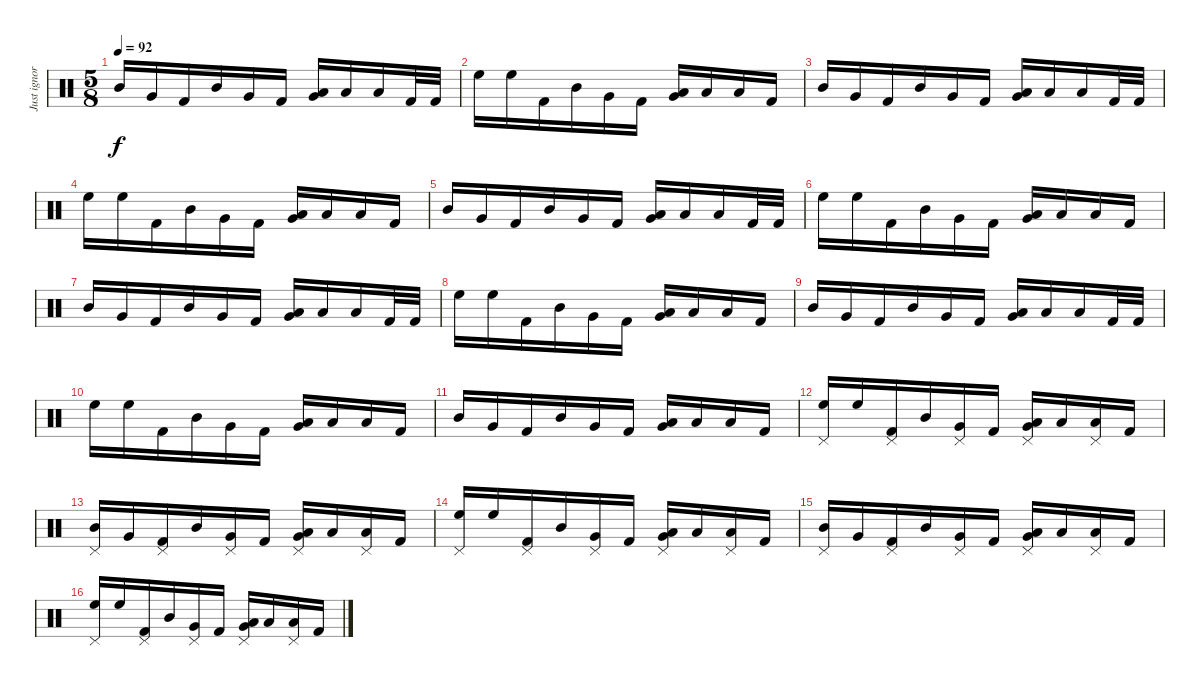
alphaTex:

\track ("Just ignore this track" "Just ignor") {instrument percussion}
\staff {score}
\articulation defaults
\ts (5 8)
\tempo 92
\clef neutral
\ks c "Mid Tom (hit)".16{dy f} "Very Low Tom (hit)".16 "Kick (hit) 2".16 "Mid Tom (hit)".16 "Very Low Tom (hit)".16 "Kick (hit) 2".16
("Low Floor Tom (hit)" "Very Low Tom (hit)").16 "Low Floor Tom (hit)".16 "Low Floor Tom (hit)".16 "Kick (hit) 2".32 "Kick (hit) 2".32 |
"High Floor Tom (hit)".16 "High Floor Tom (hit)".16 "Kick (hit) 2".16 "Mid Tom (hit)".16 "Very Low Tom (hit)".16 "Kick (hit) 2".16 ("Low Floor Tom (hit)" "Very Low Tom (hit)").16 "Low Floor Tom (hit)".16 "Low Floor Tom (hit)".16 "Kick (hit) 2".16 |
"Mid Tom (hit)".16 "Very Low Tom (hit)".16 "Kick (hit) 2".16 "Mid Tom (hit)".16 "Very Low Tom (hit)".16 "Kick (hit) 2".16 ("Low Floor Tom (hit)" "Very Low Tom (hit)").16 "Low Floor Tom (hit)".16 "Low Floor Tom (hit)".16 "Kick (hit) 2".32 "Kick (hit) 2".32 |
"High Floor Tom (hit)".16 "High Floor Tom (hit)".16 "Kick (hit) 2".16 "Mid Tom (hit)".16 "Very Low Tom (hit)".16 "Kick (hit) 2".16 ("Low Floor Tom (hit)" "Very Low Tom (hit)").16 "Low Floor Tom (hit)".16 "Low Floor Tom (hit)".16 "Kick (hit) 2".16 |
"Mid Tom (hit)".16 "Very Low Tom (hit)".16 "Kick (hit) 2".16 "Mid Tom (hit)".16 "Very Low Tom (hit)".16 "Kick (hit) 2".16 ("Low Floor Tom (hit)" "Very Low Tom (hit)").16 "Low Floor Tom (hit)".16 "Low Floor Tom (hit)".16 "Kick (hit) 2".32 "Kick (hit) 2".32 |
"High Floor Tom (hit)".16 "High Floor Tom (hit)".16 "Kick (hit) 2".16 "Mid Tom (hit)".16 "Very Low Tom (hit)".16 "Kick (hit) 2".16 ("Low Floor Tom (hit)" "Very Low Tom (hit)").16 "Low Floor Tom (hit)".16 "Low Floor Tom (hit)".16 "Kick (hit) 2".16 |
"Mid Tom (hit)".16 "Very Low Tom (hit)".16 "Kick (hit) 2".16 "Mid Tom (hit)".16 "Very Low Tom (hit)".16 "Kick (hit) 2".16 ("Low Floor Tom (hit)" "Very Low Tom (hit)").16 "Low Floor Tom (hit)".16 "Low Floor Tom (hit)".16 "Kick (hit) 2".32 "Kick (hit) 2".32 |
"High Floor Tom (hit)".16 "High Floor Tom (hit)".16 "Kick (hit) 2".16 "Mid Tom (hit)".16 "Very Low Tom (hit)".16 "Kick (hit) 2".16 ("Low Floor Tom (hit)" "Very Low Tom (hit)").16 "Low Floor Tom (hit)".16 "Low Floor Tom (hit)".16 "Kick (hit) 2".16 |
"Mid Tom (hit)".16 "Very Low Tom (hit)".16 "Kick (hit) 2".16 "Mid Tom (hit)".16 "Very Low Tom (hit)".16 "Kick (hit) 2".16 ("Low Floor Tom (hit)" "Very Low Tom (hit)").16 "Low Floor Tom (hit)".16 "Low Floor Tom (hit)".16 "Kick (hit) 2".32 "Kick (hit) 2".32 |
"High Floor Tom (hit)".16 "High Floor Tom (hit)".16 "Kick (hit) 2".16 "Mid Tom (hit)".16 "Very Low Tom (hit)".16 "Kick (hit) 2".16 ("Low Floor Tom (hit)" "Very Low Tom (hit)").16 "Low Floor Tom (hit)".16 "Low Floor Tom (hit)".16 "Kick (hit) 2".16 |
"Mid Tom (hit)".16 "Very Low Tom (hit)".16 "Kick (hit) 2".16 "Mid Tom (hit)".16 "Very Low Tom (hit)".16 "Kick (hit) 2".16 ("Low Floor Tom (hit)" "Very Low Tom (hit)").16 "Low Floor Tom (hit)".16 "Low Floor Tom (hit)".16 "Kick (hit) 2".16 |
("Pedal Hi-Hat (hit)" "High Floor Tom (hit)").16 "High Floor Tom (hit)".16 ("Pedal Hi-Hat (hit)" "Kick (hit) 2").16 "Mid Tom (hit)".16 ("Pedal Hi-Hat (hit)" "Very Low Tom (hit)").16 "Kick (hit) 2".16 ("Pedal Hi-Hat (hit)" "Low Floor Tom (hit)" "Very Low Tom (hit)").16 "Low Floor Tom (hit)".16 ("Pedal Hi-Hat (hit)" "Low Floor Tom (hit)").16 "Kick (hit) 2".16 |
("Pedal Hi-Hat (hit)" "Mid Tom (hit)").16 "Very Low Tom (hit)".16 ("Pedal Hi-Hat (hit)" "Kick (hit) 2").16 "Mid Tom (hit)".16 ("Pedal Hi-Hat (hit)" "Very Low Tom (hit)").16 "Kick (hit) 2".16 ("Pedal Hi-Hat (hit)" "Low Floor Tom (hit)" "Very Low Tom (hit)").16 "Low Floor Tom (hit)".16 ("Pedal Hi-Hat (hit)" "Low Floor Tom (hit)").16 "Kick (hit) 2".16 |
("Pedal Hi-Hat (hit)" "High Floor Tom (hit)").16 "High Floor Tom (hit)".16 ("Pedal Hi-Hat (hit)" "Kick (hit) 2").16 "Mid Tom (hit)".16 ("Pedal Hi-Hat (hit)" "Very Low Tom (hit)").16 "Kick (hit) 2".16 ("Pedal Hi-Hat (hit)" "Low Floor Tom (hit)" "Very Low Tom (hit)").16 "Low Floor Tom (hit)".16 ("Pedal Hi-Hat (hit)" "Low Floor Tom (hit)").16 "Kick (hit) 2".16 |
("Pedal Hi-Hat (hit)" "Mid Tom (hit)").16 "Very Low Tom (hit)".16 ("Pedal Hi-Hat (hit)" "Kick (hit) 2").16 "Mid Tom (hit)".16 ("Pedal Hi-Hat (hit)" "Very Low Tom (hit)").16 "Kick (hit) 2".16 ("Pedal Hi-Hat (hit)" "Low Floor Tom (hit)" "Very Low Tom (hit)").16 "Low Floor Tom (hit)".16 ("Pedal Hi-Hat (hit)" "Low Floor Tom (hit)").16 "Kick (hit) 2".16 |
("Pedal Hi-Hat (hit)" "High Floor Tom (hit)").16 "High Floor Tom (hit)".16 ("Pedal Hi-Hat (hit)" "Kick (hit) 2").16 "Mid Tom (hit)".16 ("Pedal Hi-Hat (hit)" "Very Low Tom (hit)").16 "Kick (hit) 2".16 ("Pedal Hi-Hat (hit)" "Low Floor Tom (hit)" "Very Low Tom (hit)").16 "Low Floor Tom (hit)".16 ("Pedal Hi-Hat (hit)" "Low Floor Tom (hit)").16 "Kick (hit) 2".16
